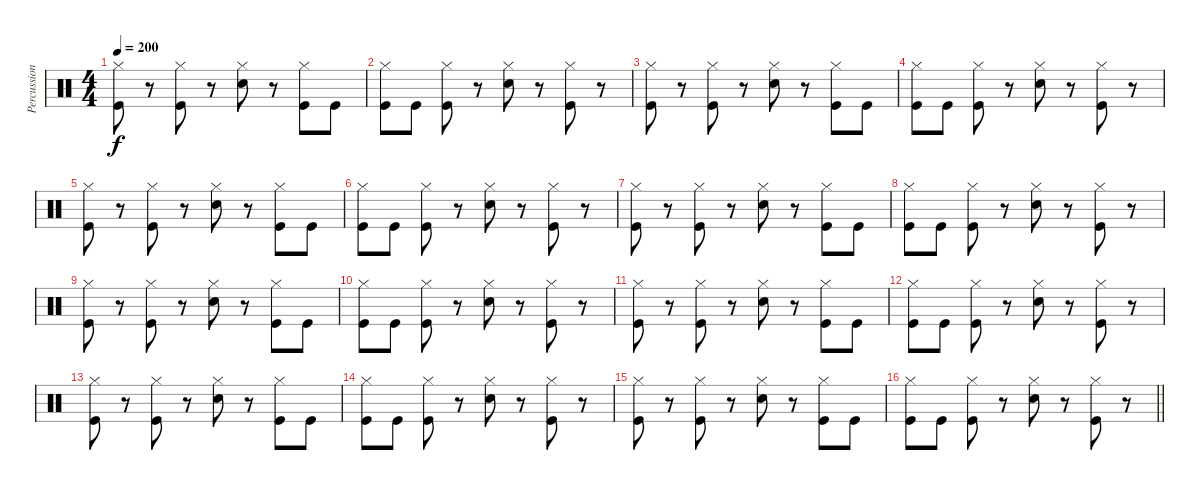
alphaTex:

\track ("Percussion" "Percussion") {instrument percussion}
\staff {score}
\articulation defaults
\ts (4 4)
\tempo 200
\clef neutral
\ks c
("Hi-Hat (closed)" "Kick (hit)").8{dy f} r.8 ("Hi-Hat (closed)" "Kick (hit)").8 r.8 ("Hi-Hat (closed)" "Snare (hit) 2").8 r.8 ("Hi-Hat (closed)" "Kick (hit)").8 "Kick (hit)".8 |
("Hi-Hat (closed)" "Kick (hit)").8 "Kick (hit)".8 ("Hi-Hat (closed)" "Kick (hit)").8 r.8 ("Hi-Hat (closed)" "Snare (hit) 2").8 r.8 ("Hi-Hat (closed)" "Kick (hit)").8 r.8 |
("Hi-Hat (closed)" "Kick (hit)").8 r.8 ("Hi-Hat (closed)" "Kick (hit)").8 r.8 ("Hi-Hat (closed)" "Snare (hit) 2").8 r.8 ("Hi-Hat (closed)" "Kick (hit)").8 "Kick (hit)".8 |
("Hi-Hat (closed)" "Kick (hit)").8 "Kick (hit)".8 ("Hi-Hat (closed)" "Kick (hit)").8 r.8 ("Hi-Hat (closed)" "Snare (hit) 2").8 r.8 ("Hi-Hat (closed)" "Kick (hit)").8 r.8 |
("Hi-Hat (closed)" "Kick (hit)").8 r.8 ("Hi-Hat (closed)" "Kick (hit)").8 r.8 ("Hi-Hat (closed)" "Snare (hit) 2").8 r.8 ("Hi-Hat (closed)" "Kick (hit)").8 "Kick (hit)".8 |
("Hi-Hat (closed)" "Kick (hit)").8 "Kick (hit)".8 ("Hi-Hat (closed)" "Kick (hit)").8 r.8 ("Hi-Hat (closed)" "Snare (hit) 2").8 r.8 ("Hi-Hat (closed)" "Kick (hit)").8 r.8 |
("Hi-Hat (closed)" "Kick (hit)").8 r.8 ("Hi-Hat (closed)" "Kick (hit)").8 r.8 ("Hi-Hat (closed)" "Snare (hit) 2").8 r.8 ("Hi-Hat (closed)" "Kick (hit)").8 "Kick (hit)".8 |
("Hi-Hat (closed)" "Kick (hit)").8 "Kick (hit)".8 ("Hi-Hat (closed)" "Kick (hit)").8 r.8 ("Hi-Hat (closed)" "Snare (hit) 2").8 r.8 ("Hi-Hat (closed)" "Kick (hit)").8 r.8 |
("Hi-Hat (closed)" "Kick (hit)").8 r.8 ("Hi-Hat (closed)" "Kick (hit)").8 r.8 ("Hi-Hat (closed)" "Snare (hit) 2").8 r.8 ("Hi-Hat (closed)" "Kick (hit)").8 "Kick (hit)".8 |
("Hi-Hat (closed)" "Kick (hit)").8 "Kick (hit)".8 ("Hi-Hat (closed)" "Kick (hit)").8 r.8 ("Hi-Hat (closed)" "Snare (hit) 2").8 r.8 ("Hi-Hat (closed)" "Kick (hit)").8 r.8 |
("Hi-Hat (closed)" "Kick (hit)").8 r.8 ("Hi-Hat (closed)" "Kick (hit)").8 r.8 ("Hi-Hat (closed)" "Snare (hit) 2").8 r.8 ("Hi-Hat (closed)" "Kick (hit)").8 "Kick (hit)".8 |
("Hi-Hat (closed)" "Kick (hit)").8 "Kick (hit)".8 ("Hi-Hat (closed)" "Kick (hit)").8 r.8 ("Hi-Hat (closed)" "Snare (hit) 2").8 r.8 ("Hi-Hat (closed)" "Kick (hit)").8 r.8 |
("Hi-Hat (closed)" "Kick (hit)").8 r.8 ("Hi-Hat (closed)" "Kick (hit)").8 r.8 ("Hi-Hat (closed)" "Snare (hit) 2").8 r.8 ("Hi-Hat (closed)" "Kick (hit)").8 "Kick (hit)".8 |
("Hi-Hat (closed)" "Kick (hit)").8 "Kick (hit)".8 ("Hi-Hat (closed)" "Kick (hit)").8 r.8 ("Hi-Hat (closed)" "Snare (hit) 2").8 r.8 ("Hi-Hat (closed)" "Kick (hit)").8 r.8 |
("Hi-Hat (closed)" "Kick (hit)").8 r.8 ("Hi-Hat (closed)" "Kick (hit)").8 r.8 ("Hi-Hat (closed)" "Snare (hit) 2").8 r.8 ("Hi-Hat (closed)" "Kick (hit)").8 "Kick (hit)".8 |
\barLineRight lightlight
("Hi-Hat (closed)" "Kick (hit)").8 "Kick (hit)".8 ("Hi-Hat (closed)" "Kick (hit)").8 r.8 ("Hi-Hat (closed)" "Snare (hit) 2").8 r.8 ("Hi-Hat (closed)" "Kick (hit)").8 r.8
